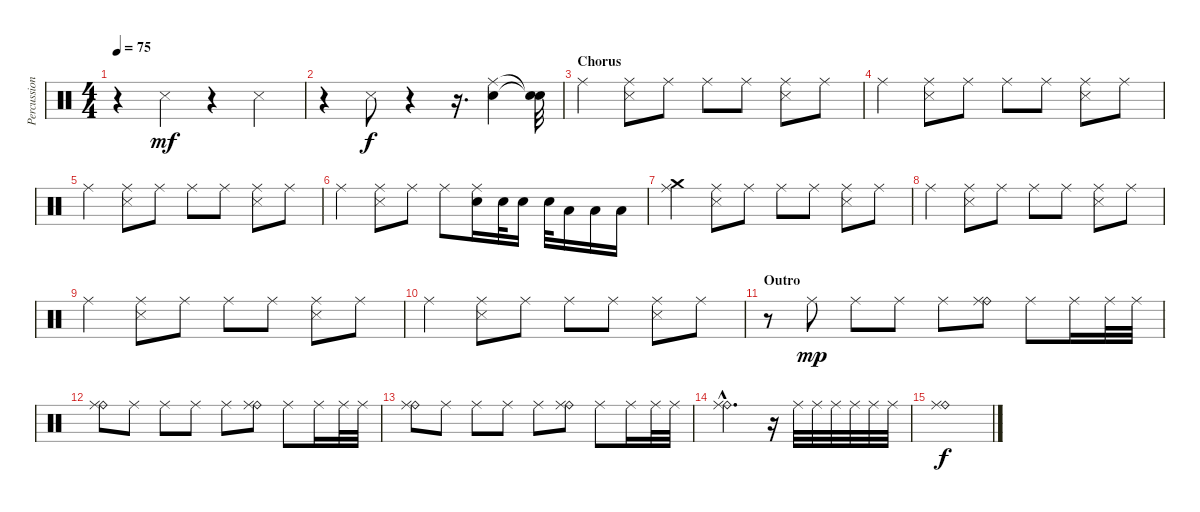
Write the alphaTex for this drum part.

\track ("Percussion - Adam Topol" "Percussion") {instrument percussion}
\staff {score}
\articulation defaults
\ts (4 4)
\tempo 75
\clef neutral
\ks c
r.4{dy mf} "Snare (side stick) 3".4 r.4 "Snare (side stick) 3".4 |
r.4 "Snare (side stick) 3".8{dy f} r.4 r.16{d} ("Ride (middle)" "Electric Snare (hit)").4 ("Snare (hit)"{t} "Snare (hit)"{t}).32 |
\section ("" "Chorus")
"Ride (middle)".4 ("Ride (middle)" "Snare (side stick) 3").8 "Ride (middle)".8 "Ride (middle)".8 "Ride (middle)".8 ("Ride (middle)" "Snare (side stick) 3").8 "Ride (middle)".8 |
"Ride (middle)".4 ("Ride (middle)" "Snare (side stick) 3").8 "Ride (middle)".8 "Ride (middle)".8 "Ride (middle)".8 ("Ride (middle)" "Snare (side stick) 3").8 "Ride (middle)".8 |
"Ride (middle)".4 ("Ride (middle)" "Snare (side stick) 3").8 "Ride (middle)".8 "Ride (middle)".8 "Ride (middle)".8 ("Ride (middle)" "Snare (side stick) 3").8 "Ride (middle)".8 |
"Ride (middle)".4 ("Ride (middle)" "Snare (side stick) 3").8 "Ride (middle)".8 "Ride (middle)".8 ("Ride (middle)" "Electric Snare (hit)").16 "Electric Snare (hit)".32 "Electric Snare (hit)".16 "Electric Snare (hit)".32 "Low Tom (hit)".16 "Low Tom (hit)".16 "Low Floor Tom (hit)".16 |
("Crash medium (hit)" "Ride (middle)").4 ("Ride (middle)" "Snare (side stick) 3").8 "Ride (middle)".8 "Ride (middle)".8 "Ride (middle)".8 ("Ride (middle)" "Snare (side stick) 3").8 "Ride (middle)".8 |
"Ride (middle)".4 ("Ride (middle)" "Snare (side stick) 3").8 "Ride (middle)".8 "Ride (middle)".8 "Ride (middle)".8 ("Ride (middle)" "Snare (side stick) 3").8 "Ride (middle)".8 |
"Ride (middle)".4 ("Ride (middle)" "Snare (side stick) 3").8 "Ride (middle)".8 "Ride (middle)".8 "Ride (middle)".8 ("Ride (middle)" "Snare (side stick) 3").8 "Ride (middle)".8 |
"Ride (middle)".4 ("Ride (middle)" "Snare (side stick) 3").8 "Ride (middle)".8 "Ride (middle)".8 "Ride (middle)".8 ("Ride (middle)" "Snare (side stick) 3").8 "Ride (middle)".8 |
\section ("" "Outro")
r.8 "Ride (middle)".8{dy mp} "Ride (middle)".8 "Ride (middle)".8 "Ride (middle)".8 ("Ride (bell)" "Ride (middle)").8 "Ride (middle)".8 "Ride (middle)".16 "Ride (middle)".32 "Ride (middle)".32 |
("Ride (bell)" "Ride (middle)").8 "Ride (middle)".8 "Ride (middle)".8 "Ride (middle)".8 "Ride (middle)".8 ("Ride (bell)" "Ride (middle)").8 "Ride (middle)".8 "Ride (middle)".16 "Ride (middle)".32 "Ride (middle)".32 |
("Ride (bell)" "Ride (middle)").8 "Ride (middle)".8 "Ride (middle)".8 "Ride (middle)".8 "Ride (middle)".8 ("Ride (bell)" "Ride (middle)").8 "Ride (middle)".8 "Ride (middle)".16 "Ride (middle)".32 "Ride (middle)".32 |
("Ride (bell)"{hac} "Ride (middle)"{hac}).2{d} r.16 "Ride (middle)".32 "Ride (middle)".32 "Ride (middle)".32 "Ride (middle)".32 "Ride (middle)".32 "Ride (middle)".32 |
("Ride (bell)" "Ride (middle)").1{dy f}
